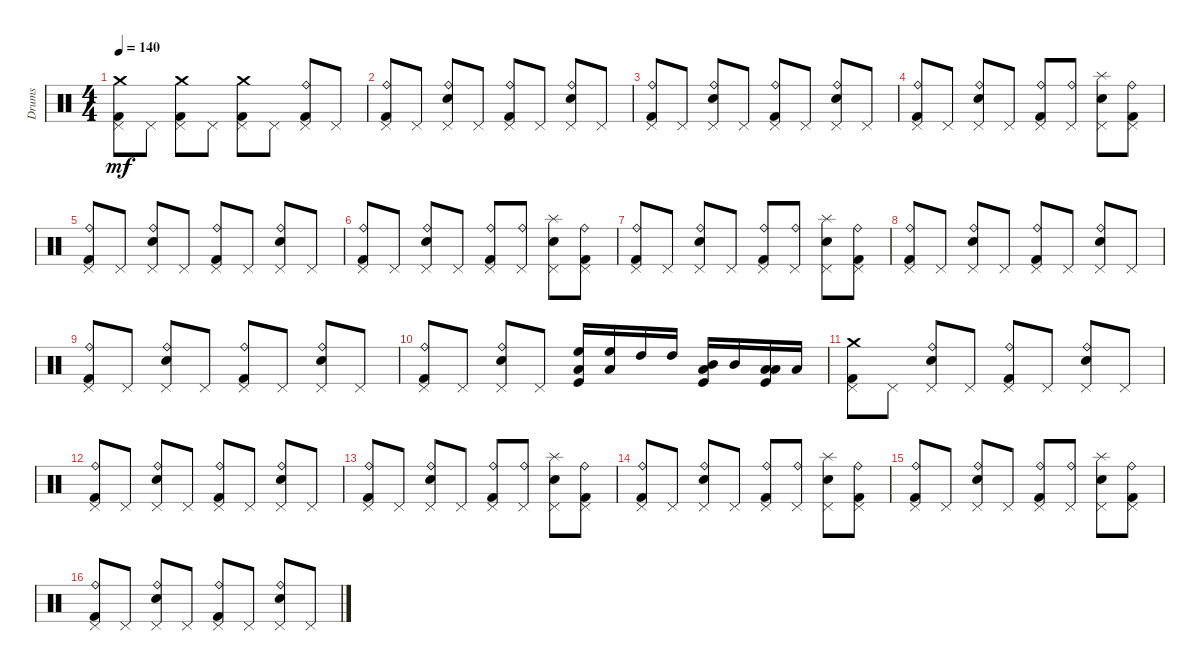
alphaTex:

\track ("Drums" "Drums") {instrument percussion}
\staff {score}
\articulation defaults
\ts (4 4)
\tempo 140
\clef neutral
\ks c
("Crash medium (hit)" "Pedal Hi-Hat (hit)" "Kick (hit) 2").8{dy mf} "Pedal Hi-Hat (hit)".8 ("Crash medium (hit)" "Pedal Hi-Hat (hit)" "Kick (hit) 2").8 "Pedal Hi-Hat (hit)".8 ("Crash medium (hit)" "Pedal Hi-Hat (hit)" "Kick (hit) 2").8 "Pedal Hi-Hat (hit)".8 ("Ride (bell)" "Pedal Hi-Hat (hit)" "Kick (hit) 2").8 "Pedal Hi-Hat (hit)".8 |
("Ride (bell)" "Pedal Hi-Hat (hit)" "Kick (hit) 2").8 "Pedal Hi-Hat (hit)".8 ("Ride (bell)" "Pedal Hi-Hat (hit)" "Snare (hit) 2").8 "Pedal Hi-Hat (hit)".8 ("Ride (bell)" "Pedal Hi-Hat (hit)" "Kick (hit) 2").8 "Pedal Hi-Hat (hit)".8 ("Ride (bell)" "Pedal Hi-Hat (hit)" "Snare (hit) 2").8 "Pedal Hi-Hat (hit)".8 |
("Ride (bell)" "Pedal Hi-Hat (hit)" "Kick (hit) 2").8 "Pedal Hi-Hat (hit)".8 ("Ride (bell)" "Pedal Hi-Hat (hit)" "Snare (hit) 2").8 "Pedal Hi-Hat (hit)".8 ("Ride (bell)" "Pedal Hi-Hat (hit)" "Kick (hit) 2").8 "Pedal Hi-Hat (hit)".8 ("Ride (bell)" "Pedal Hi-Hat (hit)" "Snare (hit) 2").8 "Pedal Hi-Hat (hit)".8 |
("Ride (bell)" "Pedal Hi-Hat (hit)" "Kick (hit) 2").8 "Pedal Hi-Hat (hit)".8 ("Ride (bell)" "Pedal Hi-Hat (hit)" "Snare (hit) 2").8 "Pedal Hi-Hat (hit)".8 ("Ride (bell)" "Pedal Hi-Hat (hit)" "Kick (hit) 2").8 ("Ride (bell)" "Pedal Hi-Hat (hit)").8 ("Splash (hit)" "Pedal Hi-Hat (hit)" "Snare (hit) 2").8 ("Ride (bell)" "Pedal Hi-Hat (hit)" "Kick (hit) 2").8 |
("Ride (bell)" "Pedal Hi-Hat (hit)" "Kick (hit) 2").8 "Pedal Hi-Hat (hit)".8 ("Ride (bell)" "Pedal Hi-Hat (hit)" "Snare (hit) 2").8 "Pedal Hi-Hat (hit)".8 ("Ride (bell)" "Pedal Hi-Hat (hit)" "Kick (hit) 2").8 "Pedal Hi-Hat (hit)".8 ("Ride (bell)" "Pedal Hi-Hat (hit)" "Snare (hit) 2").8 "Pedal Hi-Hat (hit)".8 |
("Ride (bell)" "Pedal Hi-Hat (hit)" "Kick (hit) 2").8 "Pedal Hi-Hat (hit)".8 ("Ride (bell)" "Pedal Hi-Hat (hit)" "Snare (hit) 2").8 "Pedal Hi-Hat (hit)".8 ("Ride (bell)" "Pedal Hi-Hat (hit)" "Kick (hit) 2").8 ("Ride (bell)" "Pedal Hi-Hat (hit)").8 ("Splash (hit)" "Pedal Hi-Hat (hit)" "Snare (hit) 2").8 ("Ride (bell)" "Pedal Hi-Hat (hit)" "Kick (hit) 2").8 |
("Ride (bell)" "Pedal Hi-Hat (hit)" "Kick (hit) 2").8 "Pedal Hi-Hat (hit)".8 ("Ride (bell)" "Pedal Hi-Hat (hit)" "Snare (hit) 2").8 "Pedal Hi-Hat (hit)".8 ("Ride (bell)" "Pedal Hi-Hat (hit)" "Kick (hit) 2").8 ("Ride (bell)" "Pedal Hi-Hat (hit)").8 ("Splash (hit)" "Pedal Hi-Hat (hit)" "Snare (hit) 2").8 ("Ride (bell)" "Pedal Hi-Hat (hit)" "Kick (hit) 2").8 |
("Ride (bell)" "Pedal Hi-Hat (hit)" "Kick (hit) 2").8 "Pedal Hi-Hat (hit)".8 ("Ride (bell)" "Pedal Hi-Hat (hit)" "Snare (hit) 2").8 "Pedal Hi-Hat (hit)".8 ("Ride (bell)" "Pedal Hi-Hat (hit)" "Kick (hit) 2").8 "Pedal Hi-Hat (hit)".8 ("Ride (bell)" "Pedal Hi-Hat (hit)" "Snare (hit) 2").8 "Pedal Hi-Hat (hit)".8 |
("Ride (bell)" "Pedal Hi-Hat (hit)" "Kick (hit) 2").8 "Pedal Hi-Hat (hit)".8 ("Ride (bell)" "Pedal Hi-Hat (hit)" "Snare (hit) 2").8 "Pedal Hi-Hat (hit)".8 ("Ride (bell)" "Pedal Hi-Hat (hit)" "Kick (hit) 2").8 "Pedal Hi-Hat (hit)".8 ("Ride (bell)" "Pedal Hi-Hat (hit)" "Snare (hit) 2").8 "Pedal Hi-Hat (hit)".8 |
("Ride (bell)" "Pedal Hi-Hat (hit)" "Kick (hit) 2").8 "Pedal Hi-Hat (hit)".8 ("Ride (bell)" "Pedal Hi-Hat (hit)" "Snare (hit) 2").8 "Pedal Hi-Hat (hit)".8 ("High Floor Tom (hit)" "Low Floor Tom (hit)" "Kick (hit)").16 ("High Floor Tom (hit)" "Low Floor Tom (hit)").16 "High Tom (hit)".16 "High Tom (hit)".16 ("Mid Tom (hit)" "Low Floor Tom (hit)" "Kick (hit)").16 "Mid Tom (hit)".16 ("Low Tom (hit)" "Low Floor Tom (hit)" "Kick (hit)").16 "Low Tom (hit)".16 |
("Crash medium (hit)" "Pedal Hi-Hat (hit)" "Kick (hit) 2").8 "Pedal Hi-Hat (hit)".8 ("Ride (bell)" "Pedal Hi-Hat (hit)" "Snare (hit) 2").8 "Pedal Hi-Hat (hit)".8 ("Ride (bell)" "Pedal Hi-Hat (hit)" "Kick (hit) 2").8 "Pedal Hi-Hat (hit)".8 ("Ride (bell)" "Pedal Hi-Hat (hit)" "Snare (hit) 2").8 "Pedal Hi-Hat (hit)".8 |
("Ride (bell)" "Pedal Hi-Hat (hit)" "Kick (hit) 2").8 "Pedal Hi-Hat (hit)".8 ("Ride (bell)" "Pedal Hi-Hat (hit)" "Snare (hit) 2").8 "Pedal Hi-Hat (hit)".8 ("Ride (bell)" "Pedal Hi-Hat (hit)" "Kick (hit) 2").8 "Pedal Hi-Hat (hit)".8 ("Ride (bell)" "Pedal Hi-Hat (hit)" "Snare (hit) 2").8 "Pedal Hi-Hat (hit)".8 |
("Ride (bell)" "Pedal Hi-Hat (hit)" "Kick (hit) 2").8 "Pedal Hi-Hat (hit)".8 ("Ride (bell)" "Pedal Hi-Hat (hit)" "Snare (hit) 2").8 "Pedal Hi-Hat (hit)".8 ("Ride (bell)" "Pedal Hi-Hat (hit)" "Kick (hit) 2").8 ("Ride (bell)" "Pedal Hi-Hat (hit)").8 ("Splash (hit)" "Pedal Hi-Hat (hit)" "Snare (hit) 2").8 ("Ride (bell)" "Pedal Hi-Hat (hit)" "Kick (hit) 2").8 |
("Ride (bell)" "Pedal Hi-Hat (hit)" "Kick (hit) 2").8 "Pedal Hi-Hat (hit)".8 ("Ride (bell)" "Pedal Hi-Hat (hit)" "Snare (hit) 2").8 "Pedal Hi-Hat (hit)".8 ("Ride (bell)" "Pedal Hi-Hat (hit)" "Kick (hit) 2").8 ("Ride (bell)" "Pedal Hi-Hat (hit)").8 ("Splash (hit)" "Pedal Hi-Hat (hit)" "Snare (hit) 2").8 ("Ride (bell)" "Pedal Hi-Hat (hit)" "Kick (hit) 2").8 |
("Ride (bell)" "Pedal Hi-Hat (hit)" "Kick (hit) 2").8 "Pedal Hi-Hat (hit)".8 ("Ride (bell)" "Pedal Hi-Hat (hit)" "Snare (hit) 2").8 "Pedal Hi-Hat (hit)".8 ("Ride (bell)" "Pedal Hi-Hat (hit)" "Kick (hit) 2").8 ("Ride (bell)" "Pedal Hi-Hat (hit)").8 ("Splash (hit)" "Pedal Hi-Hat (hit)" "Snare (hit) 2").8 ("Ride (bell)" "Pedal Hi-Hat (hit)" "Kick (hit) 2").8 |
("Ride (bell)" "Pedal Hi-Hat (hit)" "Kick (hit) 2").8 "Pedal Hi-Hat (hit)".8 ("Ride (bell)" "Pedal Hi-Hat (hit)" "Snare (hit) 2").8 "Pedal Hi-Hat (hit)".8 ("Ride (bell)" "Pedal Hi-Hat (hit)" "Kick (hit) 2").8 "Pedal Hi-Hat (hit)".8 ("Ride (bell)" "Pedal Hi-Hat (hit)" "Snare (hit) 2").8 "Pedal Hi-Hat (hit)".8
